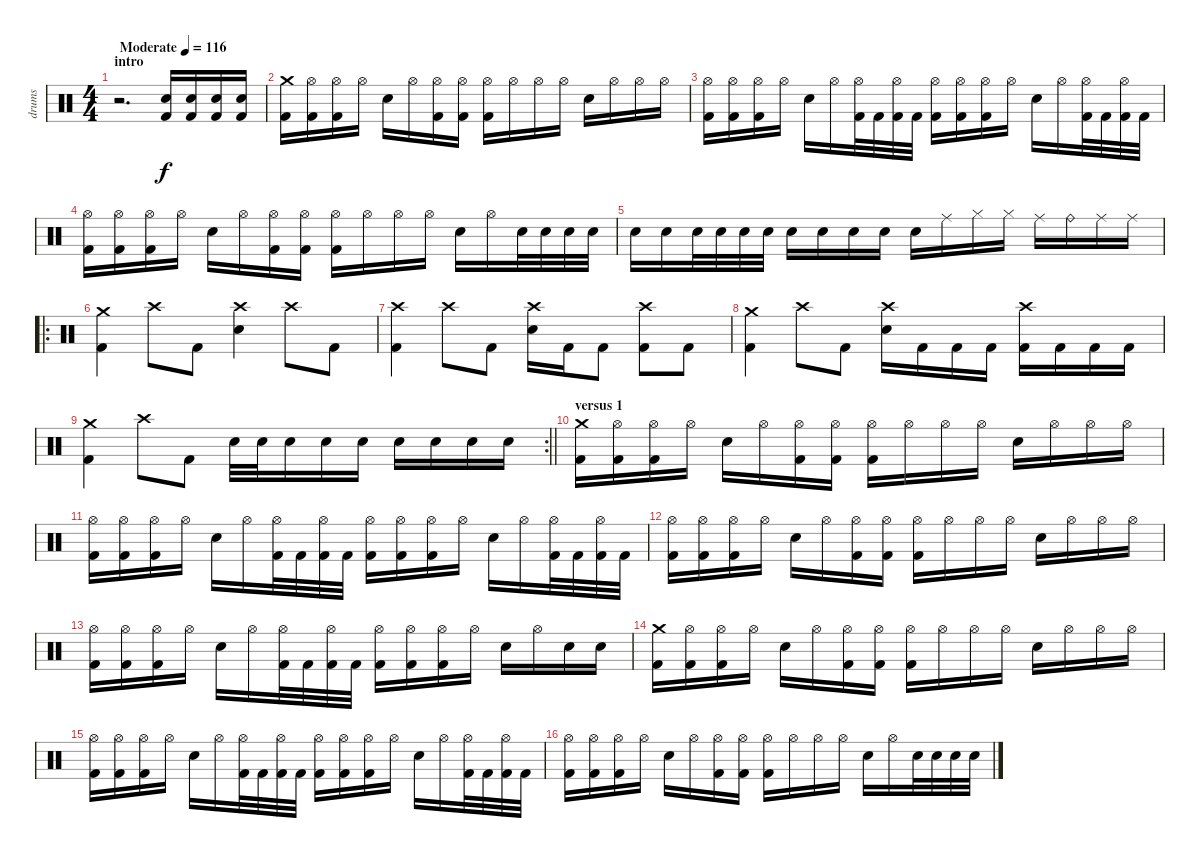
\track ("drums" "drums") {instrument percussion}
\staff {score}
\articulation defaults
\ts (4 4)
\section ("" "intro")
\tempo (116 "Moderate")
\clef neutral
\ks c
r.2{d dy f} ("Kick (hit) 2" "Snare (hit) 2").16 ("Kick (hit) 2" "Snare (hit) 2").16 ("Kick (hit) 2" "Snare (hit) 2").16 ("Kick (hit) 2" "Snare (hit) 2").16 |
("Crash medium (hit)" "Kick (hit) 2").16 ("Hi-Hat (open)" "Kick (hit) 2").16 ("Hi-Hat (open)" "Kick (hit) 2").16 "Hi-Hat (open)".16 "Snare (hit) 2".16 "Hi-Hat (open)".16 ("Hi-Hat (open)" "Kick (hit) 2").16 ("Hi-Hat (open)" "Kick (hit) 2").16 ("Hi-Hat (open)" "Kick (hit) 2").16 "Hi-Hat (open)".16 "Hi-Hat (open)".16 "Hi-Hat (open)".16 "Snare (hit) 2".16 "Hi-Hat (open)".16 "Hi-Hat (open)".16 "Hi-Hat (open)".16 |
("Hi-Hat (open)" "Kick (hit) 2").16 ("Hi-Hat (open)" "Kick (hit) 2").16 ("Hi-Hat (open)" "Kick (hit) 2").16 "Hi-Hat (open)".16 "Snare (hit) 2".16 "Hi-Hat (open)".16 ("Hi-Hat (open)" "Kick (hit) 2").32 "Kick (hit) 2".32 ("Hi-Hat (open)" "Kick (hit) 2").32 "Kick (hit) 2".32 ("Hi-Hat (open)" "Kick (hit) 2").16 ("Hi-Hat (open)" "Kick (hit) 2").16 ("Hi-Hat (open)" "Kick (hit) 2").16 "Hi-Hat (open)".16 "Snare (hit) 2".16 "Hi-Hat (open)".16 ("Hi-Hat (open)" "Kick (hit) 2").32 "Kick (hit) 2".32 ("Hi-Hat (open)" "Kick (hit) 2").32 "Kick (hit) 2".32 |
("Hi-Hat (open)" "Kick (hit) 2").16 ("Hi-Hat (open)" "Kick (hit) 2").16 ("Hi-Hat (open)" "Kick (hit) 2").16 "Hi-Hat (open)".16 "Snare (hit) 2".16 "Hi-Hat (open)".16 ("Hi-Hat (open)" "Kick (hit) 2").16 ("Hi-Hat (open)" "Kick (hit) 2").16 ("Hi-Hat (open)" "Kick (hit) 2").16 "Hi-Hat (open)".16 "Hi-Hat (open)".16 "Hi-Hat (open)".16 "Snare (hit) 2".16 "Hi-Hat (open)".16 "Snare (hit) 2".32 "Snare (hit) 2".32 "Snare (hit) 2".32 "Snare (hit) 2".32 |
"Snare (hit) 2".16 "Snare (hit) 2".16 "Snare (hit) 2".32 "Snare (hit) 2".32 "Snare (hit) 2".32 "Snare (hit) 2".32 "Snare (hit) 2".16 "Snare (hit) 2".16 "Snare (hit) 2".16 "Snare (hit) 2".16 "Snare (hit) 2".16 "Ride (middle)".16 "Hi-Hat (closed)".16 "Hi-Hat (closed)".16 "Ride (middle)".16 "Ride (bell)".16 "Ride (middle)".16 "Ride (middle)".16 |
\ro
("Crash medium (hit)" "Kick (hit) 2").4 "Crash high (hit)".8 "Kick (hit) 2".8 ("Crash high (hit)" "Snare (hit) 2").4 "Crash high (hit)".8 "Kick (hit) 2".8 |
("Crash high (hit)" "Kick (hit) 2").4 "Crash high (hit)".8 "Kick (hit) 2".8 ("Crash high (hit)" "Snare (hit) 2").16 "Kick (hit) 2".16 "Kick (hit) 2".8 ("Crash high (hit)" "Kick (hit) 2").8 "Kick (hit) 2".8 |
("Crash medium (hit)" "Kick (hit) 2").4 "Crash high (hit)".8 "Kick (hit) 2".8 ("Crash high (hit)" "Snare (hit) 2").16 "Kick (hit) 2".16 "Kick (hit) 2".16 "Kick (hit) 2".16 ("Crash high (hit)" "Kick (hit) 2").16 "Kick (hit) 2".16 "Kick (hit) 2".16 "Kick (hit) 2".16 |
\rc 2
\barLineRight lightlight
("Crash medium (hit)" "Kick (hit) 2").4 "Crash high (hit)".8 "Kick (hit) 2".8 "Snare (hit) 2".32 "Snare (hit) 2".32 "Snare (hit) 2".16 "Snare (hit) 2".16 "Snare (hit) 2".16 "Snare (hit) 2".16 "Snare (hit) 2".16 "Snare (hit) 2".16 "Snare (hit) 2".16 |
\section ("" "versus 1")
("Crash medium (hit)" "Kick (hit) 2").16 ("Hi-Hat (open)" "Kick (hit) 2").16 ("Hi-Hat (open)" "Kick (hit) 2").16 "Hi-Hat (open)".16 "Snare (hit) 2".16 "Hi-Hat (open)".16 ("Hi-Hat (open)" "Kick (hit) 2").16 ("Hi-Hat (open)" "Kick (hit) 2").16 ("Hi-Hat (open)" "Kick (hit) 2").16 "Hi-Hat (open)".16 "Hi-Hat (open)".16 "Hi-Hat (open)".16 "Snare (hit) 2".16 "Hi-Hat (open)".16 "Hi-Hat (open)".16 "Hi-Hat (open)".16 |
("Hi-Hat (open)" "Kick (hit) 2").16 ("Hi-Hat (open)" "Kick (hit) 2").16 ("Hi-Hat (open)" "Kick (hit) 2").16 "Hi-Hat (open)".16 "Snare (hit) 2".16 "Hi-Hat (open)".16 ("Hi-Hat (open)" "Kick (hit) 2").32 "Kick (hit) 2".32 ("Hi-Hat (open)" "Kick (hit) 2").32 "Kick (hit) 2".32 ("Hi-Hat (open)" "Kick (hit) 2").16 ("Hi-Hat (open)" "Kick (hit) 2").16 ("Hi-Hat (open)" "Kick (hit) 2").16 "Hi-Hat (open)".16 "Snare (hit) 2".16 "Hi-Hat (open)".16 ("Hi-Hat (open)" "Kick (hit) 2").32 "Kick (hit) 2".32 ("Hi-Hat (open)" "Kick (hit) 2").32 "Kick (hit) 2".32 |
("Hi-Hat (open)" "Kick (hit) 2").16 ("Hi-Hat (open)" "Kick (hit) 2").16 ("Hi-Hat (open)" "Kick (hit) 2").16 "Hi-Hat (open)".16 "Snare (hit) 2".16 "Hi-Hat (open)".16 ("Hi-Hat (open)" "Kick (hit) 2").16 ("Hi-Hat (open)" "Kick (hit) 2").16 ("Hi-Hat (open)" "Kick (hit) 2").16 "Hi-Hat (open)".16 "Hi-Hat (open)".16 "Hi-Hat (open)".16 "Snare (hit) 2".16 "Hi-Hat (open)".16 "Hi-Hat (open)".16 "Hi-Hat (open)".16 |
("Hi-Hat (open)" "Kick (hit) 2").16 ("Hi-Hat (open)" "Kick (hit) 2").16 ("Hi-Hat (open)" "Kick (hit) 2").16 "Hi-Hat (open)".16 "Snare (hit) 2".16 "Hi-Hat (open)".16 ("Hi-Hat (open)" "Kick (hit) 2").32 "Kick (hit) 2".32 ("Hi-Hat (open)" "Kick (hit) 2").32 "Kick (hit) 2".32 ("Hi-Hat (open)" "Kick (hit) 2").16 ("Hi-Hat (open)" "Kick (hit) 2").16 ("Hi-Hat (open)" "Kick (hit) 2").16 "Hi-Hat (open)".16 "Snare (hit) 2".16 "Hi-Hat (open)".16 "Snare (hit) 2".16 "Snare (hit) 2".16 |
("Crash medium (hit)" "Kick (hit) 2").16 ("Hi-Hat (open)" "Kick (hit) 2").16 ("Hi-Hat (open)" "Kick (hit) 2").16 "Hi-Hat (open)".16 "Snare (hit) 2".16 "Hi-Hat (open)".16 ("Hi-Hat (open)" "Kick (hit) 2").16 ("Hi-Hat (open)" "Kick (hit) 2").16 ("Hi-Hat (open)" "Kick (hit) 2").16 "Hi-Hat (open)".16 "Hi-Hat (open)".16 "Hi-Hat (open)".16 "Snare (hit) 2".16 "Hi-Hat (open)".16 "Hi-Hat (open)".16 "Hi-Hat (open)".16 |
("Hi-Hat (open)" "Kick (hit) 2").16 ("Hi-Hat (open)" "Kick (hit) 2").16 ("Hi-Hat (open)" "Kick (hit) 2").16 "Hi-Hat (open)".16 "Snare (hit) 2".16 "Hi-Hat (open)".16 ("Hi-Hat (open)" "Kick (hit) 2").32 "Kick (hit) 2".32 ("Hi-Hat (open)" "Kick (hit) 2").32 "Kick (hit) 2".32 ("Hi-Hat (open)" "Kick (hit) 2").16 ("Hi-Hat (open)" "Kick (hit) 2").16 ("Hi-Hat (open)" "Kick (hit) 2").16 "Hi-Hat (open)".16 "Snare (hit) 2".16 "Hi-Hat (open)".16 ("Hi-Hat (open)" "Kick (hit) 2").32 "Kick (hit) 2".32 ("Hi-Hat (open)" "Kick (hit) 2").32 "Kick (hit) 2".32 |
("Hi-Hat (open)" "Kick (hit) 2").16 ("Hi-Hat (open)" "Kick (hit) 2").16 ("Hi-Hat (open)" "Kick (hit) 2").16 "Hi-Hat (open)".16 "Snare (hit) 2".16 "Hi-Hat (open)".16 ("Hi-Hat (open)" "Kick (hit) 2").16 ("Hi-Hat (open)" "Kick (hit) 2").16 ("Hi-Hat (open)" "Kick (hit) 2").16 "Hi-Hat (open)".16 "Hi-Hat (open)".16 "Hi-Hat (open)".16 "Snare (hit) 2".16 "Hi-Hat (open)".16 "Snare (hit) 2".32 "Snare (hit) 2".32 "Snare (hit) 2".32 "Snare (hit) 2".32
